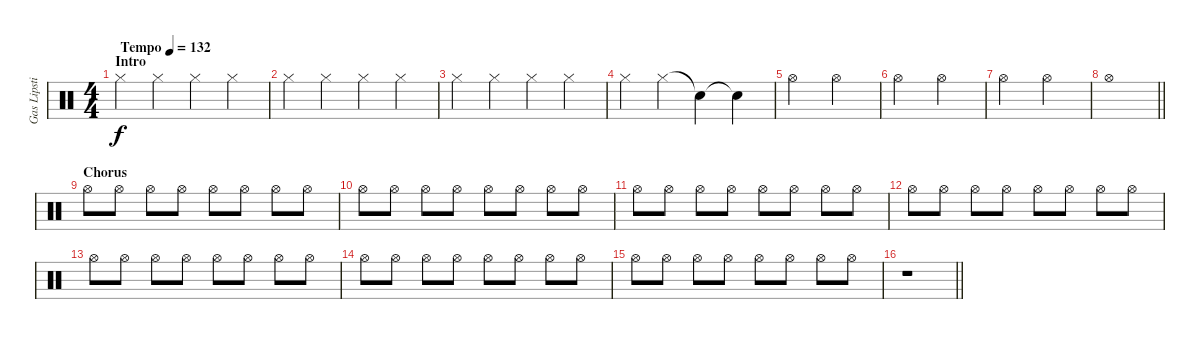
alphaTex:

\track ("Gas Lipstick (Drums)" "Gas Lipsti") {instrument percussion}
\staff {score}
\articulation defaults
\ts (4 4)
\section ("" "Intro")
\tempo (132 "Tempo")
\clef neutral
\ks c "Hi-Hat (closed)".4{dy f} "Hi-Hat (closed)".4 "Hi-Hat (closed)".4 "Hi-Hat (closed)".4
|
"Hi-Hat (closed)".4 "Hi-Hat (closed)".4 "Hi-Hat (closed)".4 "Hi-Hat (closed)".4 |
"Hi-Hat (closed)".4 "Hi-Hat (closed)".4 "Hi-Hat (closed)".4 "Hi-Hat (closed)".4 |
"Hi-Hat (closed)".4 "Hi-Hat (closed)".4 "Snare (hit)"{t}.4 "Snare (hit)"{t}.4 |
"Hi-Hat (open)".2 "Hi-Hat (open)".2 |
"Hi-Hat (open)".2 "Hi-Hat (open)".2 |
"Hi-Hat (open)".2 "Hi-Hat (open)".2 |
\barLineRight lightlight "Hi-Hat (open)".1
|
\section ("" "Chorus")
"Hi-Hat (open)".8 "Hi-Hat (open)".8 "Hi-Hat (open)".8 "Hi-Hat (open)".8 "Hi-Hat (open)".8 "Hi-Hat (open)".8 "Hi-Hat (open)".8 "Hi-Hat (open)".8 |
"Hi-Hat (open)".8 "Hi-Hat (open)".8 "Hi-Hat (open)".8 "Hi-Hat (open)".8 "Hi-Hat (open)".8 "Hi-Hat (open)".8 "Hi-Hat (open)".8 "Hi-Hat (open)".8 |
"Hi-Hat (open)".8 "Hi-Hat (open)".8 "Hi-Hat (open)".8 "Hi-Hat (open)".8 "Hi-Hat (open)".8 "Hi-Hat (open)".8 "Hi-Hat (open)".8 "Hi-Hat (open)".8 |
"Hi-Hat (open)".8 "Hi-Hat (open)".8 "Hi-Hat (open)".8 "Hi-Hat (open)".8 "Hi-Hat (open)".8 "Hi-Hat (open)".8 "Hi-Hat (open)".8 "Hi-Hat (open)".8 |
"Hi-Hat (open)".8 "Hi-Hat (open)".8 "Hi-Hat (open)".8 "Hi-Hat (open)".8 "Hi-Hat (open)".8 "Hi-Hat (open)".8 "Hi-Hat (open)".8 "Hi-Hat (open)".8 |
"Hi-Hat (open)".8 "Hi-Hat (open)".8 "Hi-Hat (open)".8 "Hi-Hat (open)".8 "Hi-Hat (open)".8 "Hi-Hat (open)".8 "Hi-Hat (open)".8 "Hi-Hat (open)".8 |
"Hi-Hat (open)".8 "Hi-Hat (open)".8 "Hi-Hat (open)".8 "Hi-Hat (open)".8 "Hi-Hat (open)".8 "Hi-Hat (open)".8 "Hi-Hat (open)".8 "Hi-Hat (open)".8 |
\barLineRight lightlight
r.1
